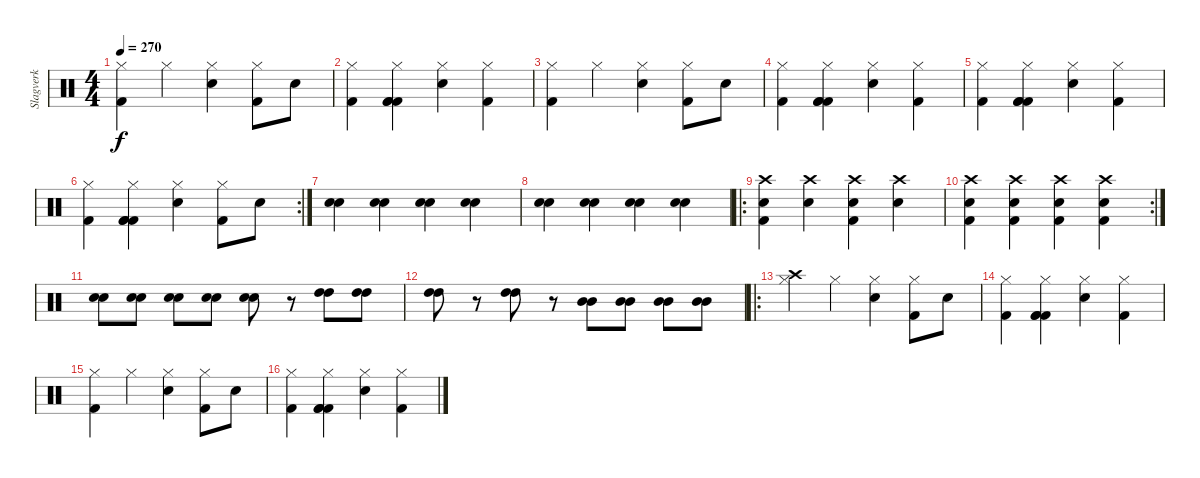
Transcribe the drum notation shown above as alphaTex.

\track ("Slagverk" "Slagverk") {instrument percussion}
\staff {score}
\articulation defaults
\ts (4 4)
\tempo 270
\clef neutral
\ks c
("Hi-Hat (closed)" "Kick (hit) 2").4{dy f} "Hi-Hat (closed)".4 ("Hi-Hat (closed)" "Electric Snare (hit)").4 ("Hi-Hat (closed)" "Kick (hit) 2").8 "Electric Snare (hit)".8 |
("Hi-Hat (closed)" "Kick (hit) 2").4 ("Hi-Hat (closed)" "Kick (hit) 2" "Kick (hit) 2" "Kick (hit) 2").4 ("Hi-Hat (closed)" "Electric Snare (hit)").4 ("Hi-Hat (closed)" "Kick (hit) 2").4 |
("Hi-Hat (closed)" "Kick (hit) 2").4 "Hi-Hat (closed)".4 ("Hi-Hat (closed)" "Electric Snare (hit)").4 ("Hi-Hat (closed)" "Kick (hit) 2").8 "Electric Snare (hit)".8 |
("Hi-Hat (closed)" "Kick (hit) 2").4 ("Hi-Hat (closed)" "Kick (hit) 2" "Kick (hit) 2" "Kick (hit) 2").4 ("Hi-Hat (closed)" "Electric Snare (hit)").4 ("Hi-Hat (closed)" "Kick (hit) 2").4 |
("Hi-Hat (closed)" "Kick (hit) 2").4 ("Hi-Hat (closed)" "Kick (hit) 2" "Kick (hit) 2" "Kick (hit) 2").4 ("Hi-Hat (closed)" "Electric Snare (hit)").4 ("Hi-Hat (closed)" "Kick (hit) 2").4 |
\rc 2
("Hi-Hat (closed)" "Kick (hit) 2").4 ("Hi-Hat (closed)" "Kick (hit) 2" "Kick (hit) 2" "Kick (hit) 2").4 ("Hi-Hat (closed)" "Electric Snare (hit)").4 ("Hi-Hat (closed)" "Kick (hit) 2").8 "Electric Snare (hit)".8 |
("Electric Snare (hit)" "Snare (hit) 2").4 ("Electric Snare (hit)" "Snare (hit) 2").4 ("Electric Snare (hit)" "Snare (hit) 2").4 ("Electric Snare (hit)" "Snare (hit) 2").4 |
("Electric Snare (hit)" "Snare (hit) 2").4 ("Electric Snare (hit)" "Snare (hit) 2").4 ("Electric Snare (hit)" "Snare (hit) 2").4 ("Electric Snare (hit)" "Snare (hit) 2").4 |
\ro
("Crash high (hit)" "Electric Snare (hit)" "Kick (hit) 2").4 ("Crash high (hit)" "Electric Snare (hit)").4 ("Crash high (hit)" "Electric Snare (hit)" "Kick (hit) 2").4 ("Crash high (hit)" "Electric Snare (hit)").4 |
\rc 2
("Crash high (hit)" "Electric Snare (hit)" "Kick (hit) 2").4 ("Crash high (hit)" "Electric Snare (hit)" "Kick (hit) 2").4 ("Crash high (hit)" "Electric Snare (hit)" "Kick (hit) 2").4 ("Crash high (hit)" "Electric Snare (hit)" "Kick (hit) 2").4 |
("Electric Snare (hit)" "Electric Snare (hit)").8 ("Electric Snare (hit)" "Electric Snare (hit)").8 ("Electric Snare (hit)" "Electric Snare (hit)").8 ("Electric Snare (hit)" "Electric Snare (hit)").8 ("Electric Snare (hit)" "Electric Snare (hit)").8 r.8 ("High Tom (hit)" "High Tom (hit)").8 ("High Tom (hit)" "High Tom (hit)").8 |
("High Tom (hit)" "High Tom (hit)").8 r.8 ("High Tom (hit)" "High Tom (hit)").8 r.8 ("Mid Tom (hit)" "Mid Tom (hit)").8 ("Mid Tom (hit)" "Mid Tom (hit)").8 ("Mid Tom (hit)" "Mid Tom (hit)").8 ("Mid Tom (hit)" "Mid Tom (hit)").8 |
\ro
("Hi-Hat (closed)" "Crash high (hit)").4 "Hi-Hat (closed)".4 ("Hi-Hat (closed)" "Electric Snare (hit)").4 ("Hi-Hat (closed)" "Kick (hit) 2").8 "Electric Snare (hit)".8 |
("Hi-Hat (closed)" "Kick (hit) 2").4 ("Hi-Hat (closed)" "Kick (hit) 2" "Kick (hit) 2" "Kick (hit) 2").4 ("Hi-Hat (closed)" "Electric Snare (hit)").4 ("Hi-Hat (closed)" "Kick (hit) 2").4 |
("Hi-Hat (closed)" "Kick (hit) 2").4 "Hi-Hat (closed)".4 ("Hi-Hat (closed)" "Electric Snare (hit)").4 ("Hi-Hat (closed)" "Kick (hit) 2").8 "Electric Snare (hit)".8 |
("Hi-Hat (closed)" "Kick (hit) 2").4 ("Hi-Hat (closed)" "Kick (hit) 2" "Kick (hit) 2" "Kick (hit) 2").4 ("Hi-Hat (closed)" "Electric Snare (hit)").4 ("Hi-Hat (closed)" "Kick (hit) 2").4
